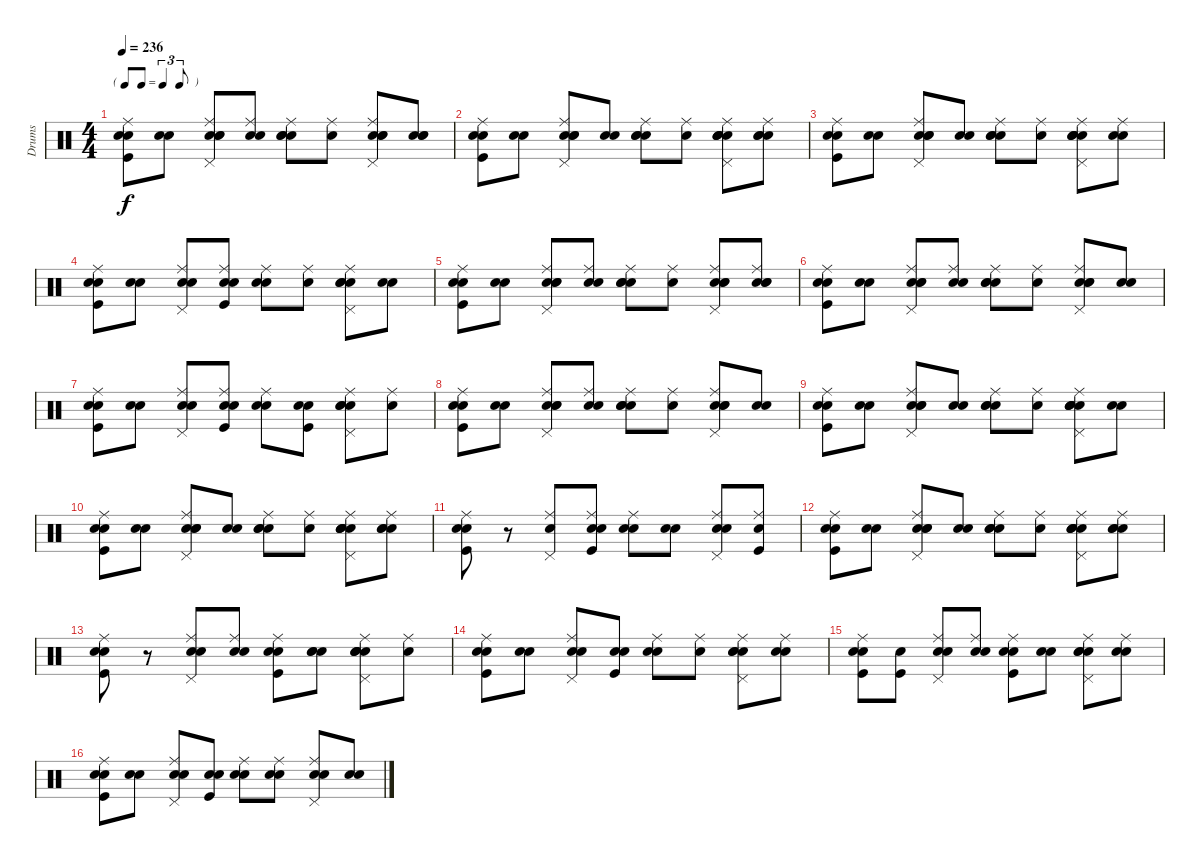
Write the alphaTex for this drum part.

\track ("Drums" "Drums") {instrument percussion}
\staff {score}
\articulation defaults
\ts (4 4)
\tf triplet8th
\tempo 236
\clef neutral
\ks c
("Snare (hit)" "Kick (hit)" "Electric Snare (hit)" "Ride (middle)").8{dy f} ("Snare (hit)" "Electric Snare (hit)").8 ("Snare (hit)" "Snare (hit) 2" "Electric Snare (hit)" "Ride (middle)" "Pedal Hi-Hat (hit)").8 ("Snare (hit)" "Snare (hit) 2" "Ride (middle)").8 ("Snare (hit)" "Snare (hit) 2" "Electric Snare (hit)" "Ride (middle)").8 ("Snare (hit)" "Ride (middle)").8 ("Snare (hit)" "Snare (hit) 2" "Electric Snare (hit)" "Ride (middle)" "Pedal Hi-Hat (hit)").8 ("Snare (hit)" "Snare (hit) 2" "Hand Clap (hit)").8 |
("Snare (hit)" "Kick (hit)" "Electric Snare (hit)" "Ride (middle)").8 ("Snare (hit)" "Electric Snare (hit)").8 ("Snare (hit)" "Snare (hit) 2" "Electric Snare (hit)" "Ride (middle)" "Pedal Hi-Hat (hit)").8 ("Snare (hit)" "Snare (hit) 2").8 ("Snare (hit)" "Snare (hit) 2" "Electric Snare (hit)" "Ride (middle)").8 ("Snare (hit)" "Ride (middle)").8 ("Snare (hit)" "Snare (hit) 2" "Electric Snare (hit)" "Ride (middle)" "Pedal Hi-Hat (hit)" "Hand Clap (hit)").8 ("Snare (hit)" "Snare (hit) 2" "Ride (middle)" "Hand Clap (hit)").8 |
("Snare (hit)" "Kick (hit)" "Electric Snare (hit)" "Ride (middle)").8 ("Snare (hit)" "Electric Snare (hit)").8 ("Snare (hit)" "Snare (hit) 2" "Electric Snare (hit)" "Ride (middle)" "Pedal Hi-Hat (hit)").8 ("Snare (hit)" "Snare (hit) 2").8 ("Snare (hit)" "Snare (hit) 2" "Electric Snare (hit)" "Ride (middle)").8 ("Snare (hit)" "Ride (middle)").8 ("Snare (hit)" "Snare (hit) 2" "Electric Snare (hit)" "Ride (middle)" "Pedal Hi-Hat (hit)" "Hand Clap (hit)").8 ("Snare (hit)" "Snare (hit) 2" "Ride (middle)").8 |
("Snare (hit)" "Kick (hit)" "Electric Snare (hit)" "Ride (middle)").8 ("Snare (hit)" "Electric Snare (hit)").8 ("Snare (hit)" "Snare (hit) 2" "Ride (middle)" "Pedal Hi-Hat (hit)").8 ("Snare (hit)" "Kick (hit)" "Snare (hit) 2" "Ride (middle)").8 ("Snare (hit)" "Electric Snare (hit)" "Ride (middle)").8 ("Snare (hit)" "Ride (middle)").8 ("Snare (hit)" "Snare (hit) 2" "Ride (middle)" "Pedal Hi-Hat (hit)" "Hand Clap (hit)").8 ("Snare (hit)" "Hand Clap (hit)").8 |
("Snare (hit)" "Kick (hit)" "Electric Snare (hit)" "Ride (middle)").8 ("Snare (hit)" "Electric Snare (hit)").8 ("Snare (hit)" "Snare (hit) 2" "Electric Snare (hit)" "Ride (middle)" "Pedal Hi-Hat (hit)").8 ("Snare (hit)" "Snare (hit) 2" "Ride (middle)").8 ("Snare (hit)" "Snare (hit) 2" "Electric Snare (hit)" "Ride (middle)").8 ("Snare (hit)" "Ride (middle)").8 ("Snare (hit)" "Snare (hit) 2" "Electric Snare (hit)" "Ride (middle)" "Pedal Hi-Hat (hit)").8 ("Snare (hit)" "Snare (hit) 2" "Ride (middle)" "Hand Clap (hit)").8 |
("Snare (hit)" "Kick (hit)" "Electric Snare (hit)" "Ride (middle)").8 ("Snare (hit)" "Electric Snare (hit)").8 ("Snare (hit)" "Snare (hit) 2" "Electric Snare (hit)" "Ride (middle)" "Pedal Hi-Hat (hit)").8 ("Snare (hit)" "Snare (hit) 2" "Ride (middle)").8 ("Snare (hit)" "Snare (hit) 2" "Electric Snare (hit)" "Ride (middle)").8 ("Snare (hit)" "Ride (middle)").8 ("Snare (hit)" "Snare (hit) 2" "Electric Snare (hit)" "Ride (middle)" "Pedal Hi-Hat (hit)").8 ("Snare (hit)" "Snare (hit) 2").8 |
("Snare (hit)" "Kick (hit)" "Electric Snare (hit)" "Ride (middle)").8 ("Snare (hit)" "Electric Snare (hit)").8 ("Snare (hit)" "Snare (hit) 2" "Ride (middle)" "Pedal Hi-Hat (hit)").8 ("Snare (hit)" "Kick (hit)" "Snare (hit) 2" "Ride (middle)").8 ("Snare (hit)" "Electric Snare (hit)" "Ride (middle)").8 ("Snare (hit)" "Kick (hit)" "Electric Snare (hit)").8 ("Snare (hit)" "Electric Snare (hit)" "Ride (middle)" "Pedal Hi-Hat (hit)" "Hand Clap (hit)").8 ("Snare (hit)" "Ride (middle)").8 |
("Snare (hit)" "Kick (hit)" "Electric Snare (hit)" "Ride (middle)").8 ("Snare (hit)" "Electric Snare (hit)").8 ("Snare (hit)" "Snare (hit) 2" "Electric Snare (hit)" "Ride (middle)" "Pedal Hi-Hat (hit)").8 ("Snare (hit)" "Snare (hit) 2" "Ride (middle)").8 ("Snare (hit)" "Snare (hit) 2" "Electric Snare (hit)" "Ride (middle)").8 ("Snare (hit)" "Ride (middle)").8 ("Snare (hit)" "Snare (hit) 2" "Electric Snare (hit)" "Ride (middle)" "Pedal Hi-Hat (hit)").8 ("Snare (hit)" "Snare (hit) 2").8 |
("Snare (hit)" "Kick (hit)" "Electric Snare (hit)" "Ride (middle)").8 ("Snare (hit)" "Electric Snare (hit)").8 ("Snare (hit)" "Snare (hit) 2" "Electric Snare (hit)" "Ride (middle)" "Pedal Hi-Hat (hit)").8 ("Snare (hit)" "Snare (hit) 2").8 ("Snare (hit)" "Snare (hit) 2" "Electric Snare (hit)" "Ride (middle)").8 ("Snare (hit)" "Ride (middle)").8 ("Snare (hit)" "Snare (hit) 2" "Electric Snare (hit)" "Ride (middle)" "Pedal Hi-Hat (hit)" "Hand Clap (hit)").8 ("Snare (hit)" "Snare (hit) 2").8 |
("Snare (hit)" "Kick (hit)" "Electric Snare (hit)" "Ride (middle)").8 ("Snare (hit)" "Electric Snare (hit)").8 ("Snare (hit)" "Snare (hit) 2" "Electric Snare (hit)" "Ride (middle)" "Pedal Hi-Hat (hit)").8 ("Snare (hit)" "Snare (hit) 2").8 ("Snare (hit)" "Snare (hit) 2" "Electric Snare (hit)" "Ride (middle)").8 ("Snare (hit)" "Ride (middle)").8 ("Snare (hit)" "Snare (hit) 2" "Electric Snare (hit)" "Ride (middle)" "Pedal Hi-Hat (hit)" "Hand Clap (hit)").8 ("Snare (hit)" "Snare (hit) 2" "Ride (middle)" "Hand Clap (hit)").8 |
("Snare (hit)" "Kick (hit)" "Electric Snare (hit)" "Ride (middle)").8 r.8 ("Snare (hit) 2" "Ride (middle)" "Pedal Hi-Hat (hit)").8 ("Snare (hit)" "Kick (hit)" "Snare (hit) 2" "Ride (middle)").8 ("Snare (hit)" "Electric Snare (hit)" "Ride (middle)").8 ("Snare (hit)" "Hand Clap (hit)").8 ("Snare (hit)" "Snare (hit) 2" "Ride (middle)" "Pedal Hi-Hat (hit)").8 ("Snare (hit)" "Kick (hit)" "Ride (middle)").8 |
("Snare (hit)" "Kick (hit)" "Electric Snare (hit)" "Ride (middle)").8 ("Snare (hit)" "Electric Snare (hit)").8 ("Snare (hit)" "Snare (hit) 2" "Electric Snare (hit)" "Ride (middle)" "Pedal Hi-Hat (hit)").8 ("Snare (hit)" "Snare (hit) 2").8 ("Snare (hit)" "Snare (hit) 2" "Electric Snare (hit)" "Ride (middle)").8 ("Snare (hit)" "Ride (middle)").8 ("Snare (hit)" "Snare (hit) 2" "Electric Snare (hit)" "Ride (middle)" "Pedal Hi-Hat (hit)" "Hand Clap (hit)").8 ("Snare (hit)" "Snare (hit) 2" "Ride (middle)" "Hand Clap (hit)").8 |
("Snare (hit)" "Kick (hit)" "Electric Snare (hit)" "Ride (middle)").8 r.8 ("Snare (hit) 2" "Electric Snare (hit)" "Ride (middle)" "Pedal Hi-Hat (hit)").8 ("Snare (hit)" "Ride (middle)" "Hand Clap (hit)").8 ("Snare (hit)" "Kick (hit)" "Electric Snare (hit)" "Ride (middle)").8 ("Snare (hit)" "Electric Snare (hit)" "Hand Clap (hit)").8 ("Snare (hit)" "Snare (hit) 2" "Electric Snare (hit)" "Ride (middle)" "Pedal Hi-Hat (hit)" "Hand Clap (hit)").8 ("Snare (hit)" "Ride (middle)").8 |
("Snare (hit)" "Kick (hit)" "Electric Snare (hit)" "Ride (middle)").8 ("Snare (hit)" "Electric Snare (hit)").8 ("Snare (hit)" "Snare (hit) 2" "Ride (middle)" "Pedal Hi-Hat (hit)").8 ("Snare (hit)" "Kick (hit)" "Snare (hit) 2").8 ("Snare (hit)" "Electric Snare (hit)" "Ride (middle)").8 ("Snare (hit)" "Ride (middle)").8 ("Snare (hit)" "Snare (hit) 2" "Ride (middle)" "Pedal Hi-Hat (hit)" "Hand Clap (hit)").8 ("Snare (hit)" "Ride (middle)" "Hand Clap (hit)").8 |
("Snare (hit)" "Kick (hit)" "Electric Snare (hit)" "Ride (middle)").8 ("Snare (hit)" "Kick (hit)").8 ("Snare (hit)" "Snare (hit) 2" "Ride (middle)" "Pedal Hi-Hat (hit)").8 ("Snare (hit)" "Snare (hit) 2" "Ride (middle)").8 ("Snare (hit)" "Kick (hit)" "Electric Snare (hit)" "Ride (middle)").8 ("Snare (hit)" "Hand Clap (hit)").8 ("Snare (hit)" "Snare (hit) 2" "Ride (middle)" "Pedal Hi-Hat (hit)" "Hand Clap (hit)").8 ("Snare (hit)" "Snare (hit) 2" "Ride (middle)").8 |
("Snare (hit)" "Kick (hit)" "Electric Snare (hit)" "Ride (middle)").8 ("Snare (hit)" "Electric Snare (hit)").8 ("Snare (hit)" "Snare (hit) 2" "Ride (middle)" "Pedal Hi-Hat (hit)").8 ("Snare (hit)" "Kick (hit)" "Hand Clap (hit)").8 ("Snare (hit)" "Electric Snare (hit)" "Ride (middle)").8 ("Snare (hit)" "Ride (middle)" "Hand Clap (hit)").8 ("Snare (hit)" "Snare (hit) 2" "Ride (middle)" "Pedal Hi-Hat (hit)").8 ("Snare (hit)" "Hand Clap (hit)").8
